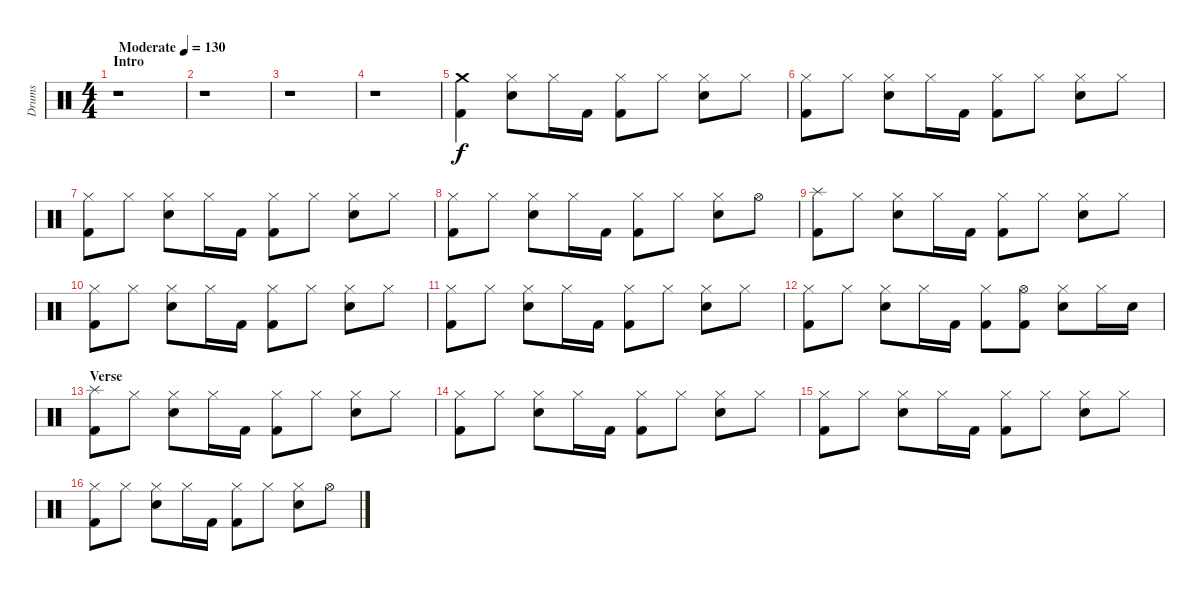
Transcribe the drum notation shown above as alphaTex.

\track ("Drums" "Drums") {instrument percussion}
\staff {score}
\articulation defaults
\ts (4 4)
\section ("" "Intro")
\tempo (130 "Moderate")
\clef neutral
\ks c
r.1{dy f} |
r.1 |
r.1 |
r.1 |
("Crash medium (hit)" "Kick (hit) 2").4 ("Hi-Hat (closed)" "Snare (hit) 2").8 "Hi-Hat (closed)".16 "Kick (hit) 2".16 ("Hi-Hat (closed)" "Kick (hit) 2").8 "Hi-Hat (closed)".8 ("Hi-Hat (closed)" "Snare (hit) 2").8 "Hi-Hat (closed)".8 |
("Hi-Hat (closed)" "Kick (hit) 2").8 "Hi-Hat (closed)".8 ("Hi-Hat (closed)" "Snare (hit) 2").8 "Hi-Hat (closed)".16 "Kick (hit) 2".16 ("Hi-Hat (closed)" "Kick (hit) 2").8 "Hi-Hat (closed)".8 ("Hi-Hat (closed)" "Snare (hit) 2").8 "Hi-Hat (closed)".8 |
("Hi-Hat (closed)" "Kick (hit) 2").8 "Hi-Hat (closed)".8 ("Hi-Hat (closed)" "Snare (hit) 2").8 "Hi-Hat (closed)".16 "Kick (hit) 2".16 ("Hi-Hat (closed)" "Kick (hit) 2").8 "Hi-Hat (closed)".8 ("Hi-Hat (closed)" "Snare (hit) 2").8 "Hi-Hat (closed)".8 |
("Hi-Hat (closed)" "Kick (hit) 2").8 "Hi-Hat (closed)".8 ("Hi-Hat (closed)" "Snare (hit) 2").8 "Hi-Hat (closed)".16 "Kick (hit) 2".16 ("Hi-Hat (closed)" "Kick (hit) 2").8 "Hi-Hat (closed)".8 ("Hi-Hat (closed)" "Snare (hit) 2").8 "Hi-Hat (open)".8 |
("Splash (hit)" "Kick (hit) 2").8 "Hi-Hat (closed)".8 ("Hi-Hat (closed)" "Snare (hit) 2").8 "Hi-Hat (closed)".16 "Kick (hit) 2".16 ("Hi-Hat (closed)" "Kick (hit) 2").8 "Hi-Hat (closed)".8 ("Hi-Hat (closed)" "Snare (hit) 2").8 "Hi-Hat (closed)".8 |
("Hi-Hat (closed)" "Kick (hit) 2").8 "Hi-Hat (closed)".8 ("Hi-Hat (closed)" "Snare (hit) 2").8 "Hi-Hat (closed)".16 "Kick (hit) 2".16 ("Hi-Hat (closed)" "Kick (hit) 2").8 "Hi-Hat (closed)".8 ("Hi-Hat (closed)" "Snare (hit) 2").8 "Hi-Hat (closed)".8 |
("Hi-Hat (closed)" "Kick (hit) 2").8 "Hi-Hat (closed)".8 ("Hi-Hat (closed)" "Snare (hit) 2").8 "Hi-Hat (closed)".16 "Kick (hit) 2".16 ("Hi-Hat (closed)" "Kick (hit) 2").8 "Hi-Hat (closed)".8 ("Hi-Hat (closed)" "Snare (hit) 2").8 "Hi-Hat (closed)".8 |
("Hi-Hat (closed)" "Kick (hit) 2").8 "Hi-Hat (closed)".8 ("Hi-Hat (closed)" "Snare (hit) 2").8 "Hi-Hat (closed)".16 "Kick (hit) 2".16 ("Hi-Hat (closed)" "Kick (hit) 2").8 ("Hi-Hat (open)" "Kick (hit) 2").8 ("Hi-Hat (closed)" "Snare (hit) 2").8 "Hi-Hat (closed)".16 "Snare (hit) 2".16 |
\section ("" "Verse")
("Splash (hit)" "Kick (hit) 2").8 "Hi-Hat (closed)".8 ("Hi-Hat (closed)" "Snare (hit) 2").8 "Hi-Hat (closed)".16 "Kick (hit) 2".16 ("Hi-Hat (closed)" "Kick (hit) 2").8 "Hi-Hat (closed)".8 ("Hi-Hat (closed)" "Snare (hit) 2").8 "Hi-Hat (closed)".8 |
("Hi-Hat (closed)" "Kick (hit) 2").8 "Hi-Hat (closed)".8 ("Hi-Hat (closed)" "Snare (hit) 2").8 "Hi-Hat (closed)".16 "Kick (hit) 2".16 ("Hi-Hat (closed)" "Kick (hit) 2").8 "Hi-Hat (closed)".8 ("Hi-Hat (closed)" "Snare (hit) 2").8 "Hi-Hat (closed)".8 |
("Hi-Hat (closed)" "Kick (hit) 2").8 "Hi-Hat (closed)".8 ("Hi-Hat (closed)" "Snare (hit) 2").8 "Hi-Hat (closed)".16 "Kick (hit) 2".16 ("Hi-Hat (closed)" "Kick (hit) 2").8 "Hi-Hat (closed)".8 ("Hi-Hat (closed)" "Snare (hit) 2").8 "Hi-Hat (closed)".8 |
("Hi-Hat (closed)" "Kick (hit) 2").8 "Hi-Hat (closed)".8 ("Hi-Hat (closed)" "Snare (hit) 2").8 "Hi-Hat (closed)".16 "Kick (hit) 2".16 ("Hi-Hat (closed)" "Kick (hit) 2").8 "Hi-Hat (closed)".8 ("Hi-Hat (closed)" "Snare (hit) 2").8 "Hi-Hat (open)".8
